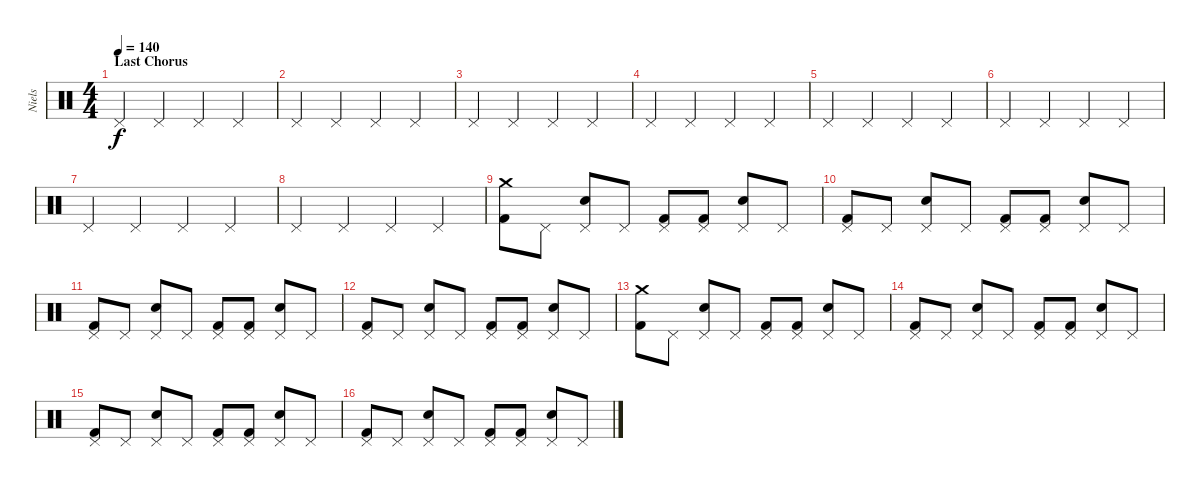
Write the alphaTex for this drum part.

\track ("Niels" "Niels") {instrument percussion}
\staff {score}
\articulation defaults
\ts (4 4)
\section ("" "Last Chorus")
\tempo 140
\clef neutral
\ks c "Pedal Hi-Hat (hit)".4{dy f} "Pedal Hi-Hat (hit)".4 "Pedal Hi-Hat (hit)".4 "Pedal Hi-Hat (hit)".4
|
"Pedal Hi-Hat (hit)".4 "Pedal Hi-Hat (hit)".4 "Pedal Hi-Hat (hit)".4 "Pedal Hi-Hat (hit)".4 |
"Pedal Hi-Hat (hit)".4 "Pedal Hi-Hat (hit)".4 "Pedal Hi-Hat (hit)".4 "Pedal Hi-Hat (hit)".4 |
"Pedal Hi-Hat (hit)".4 "Pedal Hi-Hat (hit)".4 "Pedal Hi-Hat (hit)".4 "Pedal Hi-Hat (hit)".4 |
"Pedal Hi-Hat (hit)".4 "Pedal Hi-Hat (hit)".4 "Pedal Hi-Hat (hit)".4 "Pedal Hi-Hat (hit)".4 |
"Pedal Hi-Hat (hit)".4 "Pedal Hi-Hat (hit)".4 "Pedal Hi-Hat (hit)".4 "Pedal Hi-Hat (hit)".4 |
"Pedal Hi-Hat (hit)".4 "Pedal Hi-Hat (hit)".4 "Pedal Hi-Hat (hit)".4 "Pedal Hi-Hat (hit)".4 |
"Pedal Hi-Hat (hit)".4 "Pedal Hi-Hat (hit)".4 "Pedal Hi-Hat (hit)".4 "Pedal Hi-Hat (hit)".4 |
("Crash medium (hit)" "Kick (hit) 2").8 "Pedal Hi-Hat (hit)".8 ("Pedal Hi-Hat (hit)" "Snare (hit) 2").8 "Pedal Hi-Hat (hit)".8 ("Pedal Hi-Hat (hit)" "Kick (hit) 2").8 ("Pedal Hi-Hat (hit)" "Kick (hit) 2").8 ("Pedal Hi-Hat (hit)" "Snare (hit) 2").8 "Pedal Hi-Hat (hit)".8 |
("Pedal Hi-Hat (hit)" "Kick (hit) 2").8 "Pedal Hi-Hat (hit)".8 ("Pedal Hi-Hat (hit)" "Snare (hit) 2").8 "Pedal Hi-Hat (hit)".8 ("Pedal Hi-Hat (hit)" "Kick (hit) 2").8 ("Pedal Hi-Hat (hit)" "Kick (hit) 2").8 ("Pedal Hi-Hat (hit)" "Snare (hit) 2").8 "Pedal Hi-Hat (hit)".8 |
("Pedal Hi-Hat (hit)" "Kick (hit) 2").8 "Pedal Hi-Hat (hit)".8 ("Pedal Hi-Hat (hit)" "Snare (hit) 2").8 "Pedal Hi-Hat (hit)".8 ("Pedal Hi-Hat (hit)" "Kick (hit) 2").8 ("Pedal Hi-Hat (hit)" "Kick (hit) 2").8 ("Pedal Hi-Hat (hit)" "Snare (hit) 2").8 "Pedal Hi-Hat (hit)".8 |
("Pedal Hi-Hat (hit)" "Kick (hit) 2").8 "Pedal Hi-Hat (hit)".8 ("Pedal Hi-Hat (hit)" "Snare (hit) 2").8 "Pedal Hi-Hat (hit)".8 ("Pedal Hi-Hat (hit)" "Kick (hit) 2").8 ("Pedal Hi-Hat (hit)" "Kick (hit) 2").8 ("Pedal Hi-Hat (hit)" "Snare (hit) 2").8 "Pedal Hi-Hat (hit)".8 |
("Crash medium (hit)" "Kick (hit) 2").8 "Pedal Hi-Hat (hit)".8 ("Pedal Hi-Hat (hit)" "Snare (hit) 2").8 "Pedal Hi-Hat (hit)".8 ("Pedal Hi-Hat (hit)" "Kick (hit) 2").8 ("Pedal Hi-Hat (hit)" "Kick (hit) 2").8 ("Pedal Hi-Hat (hit)" "Snare (hit) 2").8 "Pedal Hi-Hat (hit)".8 |
("Pedal Hi-Hat (hit)" "Kick (hit) 2").8 "Pedal Hi-Hat (hit)".8 ("Pedal Hi-Hat (hit)" "Snare (hit) 2").8 "Pedal Hi-Hat (hit)".8 ("Pedal Hi-Hat (hit)" "Kick (hit) 2").8 ("Pedal Hi-Hat (hit)" "Kick (hit) 2").8 ("Pedal Hi-Hat (hit)" "Snare (hit) 2").8 "Pedal Hi-Hat (hit)".8 |
("Pedal Hi-Hat (hit)" "Kick (hit) 2").8 "Pedal Hi-Hat (hit)".8 ("Pedal Hi-Hat (hit)" "Snare (hit) 2").8 "Pedal Hi-Hat (hit)".8 ("Pedal Hi-Hat (hit)" "Kick (hit) 2").8 ("Pedal Hi-Hat (hit)" "Kick (hit) 2").8 ("Pedal Hi-Hat (hit)" "Snare (hit) 2").8 "Pedal Hi-Hat (hit)".8 |
("Pedal Hi-Hat (hit)" "Kick (hit) 2").8 "Pedal Hi-Hat (hit)".8 ("Pedal Hi-Hat (hit)" "Snare (hit) 2").8 "Pedal Hi-Hat (hit)".8 ("Pedal Hi-Hat (hit)" "Kick (hit) 2").8 ("Pedal Hi-Hat (hit)" "Kick (hit) 2").8 ("Pedal Hi-Hat (hit)" "Snare (hit) 2").8 "Pedal Hi-Hat (hit)".8
